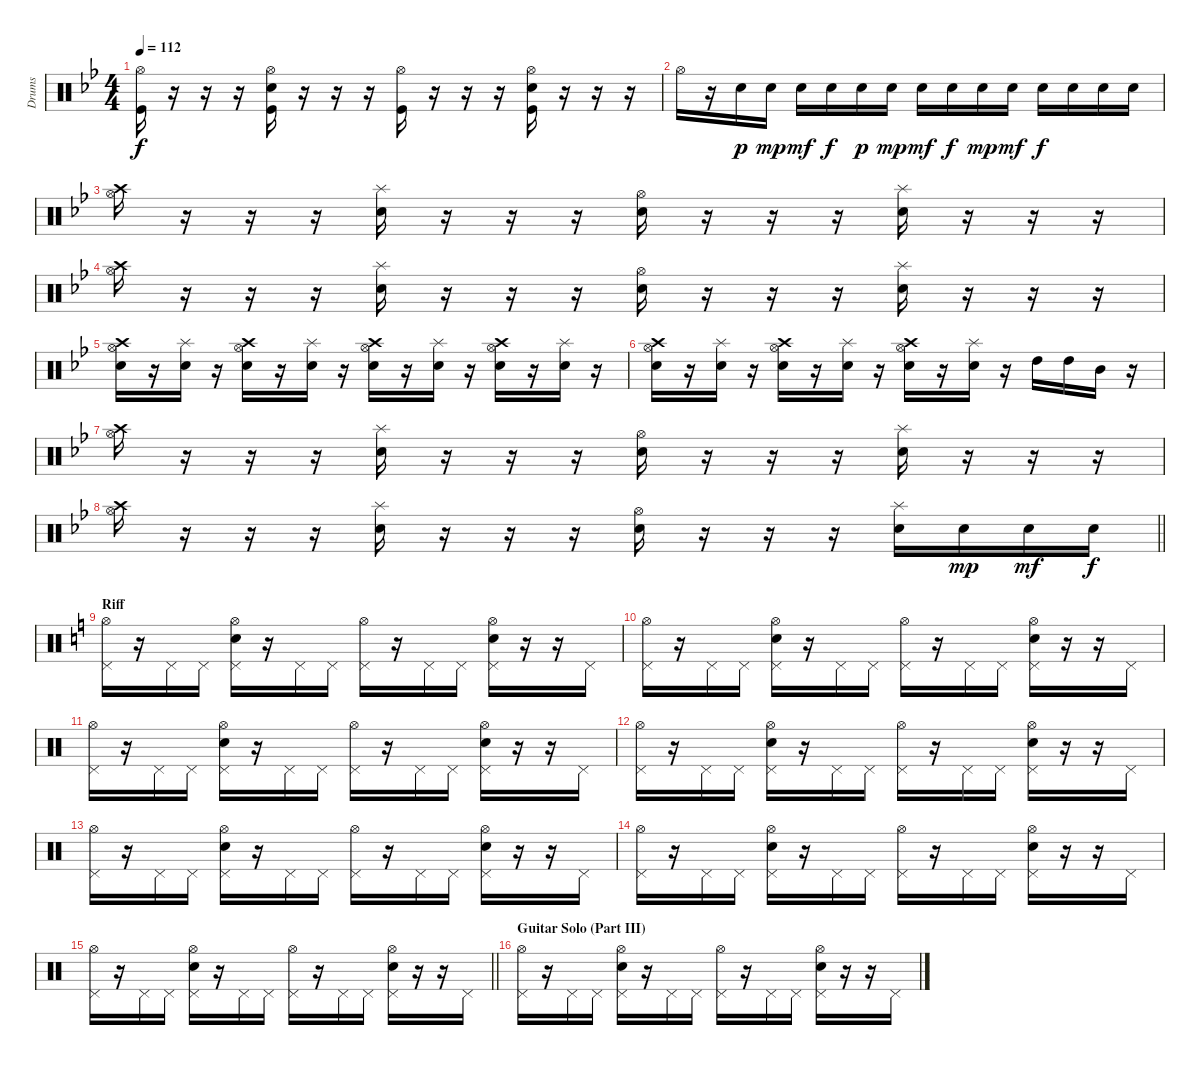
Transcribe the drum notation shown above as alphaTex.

\track ("Drums" "Drums") {instrument percussion}
\staff {score}
\articulation defaults
\ts (4 4)
\tempo 112
\clef neutral
\ks bb
("Hi-Hat (open)" "Kick (hit)").16{dy f} r.16 r.16 r.16 ("Hi-Hat (open)" "Electric Snare (hit)" "Kick (hit)").16 r.16 r.16 r.16 ("Hi-Hat (open)" "Kick (hit)").16 r.16 r.16 r.16 ("Hi-Hat (open)" "Electric Snare (hit)" "Kick (hit)").16 r.16 r.16 r.16 |
"Hi-Hat (open)".16 r.16 "Electric Snare (hit)".16{dy p} "Electric Snare (hit)".16{dy mp} "Electric Snare (hit)".16{dy mf} "Electric Snare (hit)".16{dy f} "Electric Snare (hit)".16{dy p} "Electric Snare (hit)".16{dy mp} "Electric Snare (hit)".16{dy mf} "Electric Snare (hit)".16{dy f} "Electric Snare (hit)".16{dy mp} "Electric Snare (hit)".16{dy mf} "Electric Snare (hit)".16{dy f} "Electric Snare (hit)".16 "Electric Snare (hit)".16 "Electric Snare (hit)".16 |
("Hi-Hat (open)" "Crash high (hit)").16 r.16 r.16 r.16 ("Electric Snare (hit)" "Splash (hit)").16 r.16 r.16 r.16 ("Hi-Hat (open)" "Electric Snare (hit)").16 r.16 r.16 r.16 ("Electric Snare (hit)" "Splash (hit)").16 r.16 r.16 r.16 |
("Hi-Hat (open)" "Crash high (hit)").16 r.16 r.16 r.16 ("Electric Snare (hit)" "Splash (hit)").16 r.16 r.16 r.16 ("Hi-Hat (open)" "Electric Snare (hit)").16 r.16 r.16 r.16 ("Electric Snare (hit)" "Splash (hit)").16 r.16 r.16 r.16 |
("Hi-Hat (open)" "Electric Snare (hit)" "Crash high (hit)").16 r.16 ("Electric Snare (hit)" "Splash (hit)").16 r.16 ("Hi-Hat (open)" "Electric Snare (hit)" "Crash high (hit)").16 r.16 ("Electric Snare (hit)" "Splash (hit)").16 r.16 ("Hi-Hat (open)" "Electric Snare (hit)" "Crash high (hit)").16 r.16 ("Electric Snare (hit)" "Splash (hit)").16 r.16 ("Hi-Hat (open)" "Electric Snare (hit)" "Crash high (hit)").16 r.16 ("Electric Snare (hit)" "Splash (hit)").16 r.16 |
("Hi-Hat (open)" "Electric Snare (hit)" "Crash high (hit)").16 r.16 ("Electric Snare (hit)" "Splash (hit)").16 r.16 ("Hi-Hat (open)" "Electric Snare (hit)" "Crash high (hit)").16 r.16 ("Electric Snare (hit)" "Splash (hit)").16 r.16 ("Hi-Hat (open)" "Electric Snare (hit)" "Crash high (hit)").16 r.16 ("Electric Snare (hit)" "Splash (hit)").16 r.16 "High Tom (hit)".16 "High Tom (hit)".16 "Mid Tom (hit)".16 r.16 |
("Hi-Hat (open)" "Crash high (hit)").16 r.16 r.16 r.16 ("Electric Snare (hit)" "Splash (hit)").16 r.16 r.16 r.16 ("Hi-Hat (open)" "Electric Snare (hit)").16 r.16 r.16 r.16 ("Electric Snare (hit)" "Splash (hit)").16 r.16 r.16 r.16 |
\barLineRight lightlight
("Hi-Hat (open)" "Crash high (hit)").16 r.16 r.16 r.16 ("Electric Snare (hit)" "Splash (hit)").16 r.16 r.16 r.16 ("Hi-Hat (open)" "Electric Snare (hit)").16 r.16 r.16 r.16 ("Electric Snare (hit)" "Splash (hit)").16 "Electric Snare (hit)".16{dy mp} "Electric Snare (hit)".16{dy mf} "Electric Snare (hit)".16{dy f} |
\section ("" "Riff")
\ks c
("Pedal Hi-Hat (hit)" "Hi-Hat (open)").16 r.16 "Pedal Hi-Hat (hit)".16 "Pedal Hi-Hat (hit)".16 ("Pedal Hi-Hat (hit)" "Hi-Hat (open)" "Electric Snare (hit)").16 r.16 "Pedal Hi-Hat (hit)".16 "Pedal Hi-Hat (hit)".16 ("Pedal Hi-Hat (hit)" "Hi-Hat (open)").16 r.16 "Pedal Hi-Hat (hit)".16 "Pedal Hi-Hat (hit)".16 ("Pedal Hi-Hat (hit)" "Hi-Hat (open)" "Electric Snare (hit)").16 r.16 r.16 "Pedal Hi-Hat (hit)".16 |
("Pedal Hi-Hat (hit)" "Hi-Hat (open)").16 r.16 "Pedal Hi-Hat (hit)".16 "Pedal Hi-Hat (hit)".16 ("Pedal Hi-Hat (hit)" "Hi-Hat (open)" "Electric Snare (hit)").16 r.16 "Pedal Hi-Hat (hit)".16 "Pedal Hi-Hat (hit)".16 ("Pedal Hi-Hat (hit)" "Hi-Hat (open)").16 r.16 "Pedal Hi-Hat (hit)".16 "Pedal Hi-Hat (hit)".16 ("Pedal Hi-Hat (hit)" "Hi-Hat (open)" "Electric Snare (hit)").16 r.16 r.16 "Pedal Hi-Hat (hit)".16 |
("Pedal Hi-Hat (hit)" "Hi-Hat (open)").16 r.16 "Pedal Hi-Hat (hit)".16 "Pedal Hi-Hat (hit)".16 ("Pedal Hi-Hat (hit)" "Hi-Hat (open)" "Electric Snare (hit)").16 r.16 "Pedal Hi-Hat (hit)".16 "Pedal Hi-Hat (hit)".16 ("Pedal Hi-Hat (hit)" "Hi-Hat (open)").16 r.16 "Pedal Hi-Hat (hit)".16 "Pedal Hi-Hat (hit)".16 ("Pedal Hi-Hat (hit)" "Hi-Hat (open)" "Electric Snare (hit)").16 r.16 r.16 "Pedal Hi-Hat (hit)".16 |
("Pedal Hi-Hat (hit)" "Hi-Hat (open)").16 r.16 "Pedal Hi-Hat (hit)".16 "Pedal Hi-Hat (hit)".16 ("Pedal Hi-Hat (hit)" "Hi-Hat (open)" "Electric Snare (hit)").16 r.16 "Pedal Hi-Hat (hit)".16 "Pedal Hi-Hat (hit)".16 ("Pedal Hi-Hat (hit)" "Hi-Hat (open)").16 r.16 "Pedal Hi-Hat (hit)".16 "Pedal Hi-Hat (hit)".16 ("Pedal Hi-Hat (hit)" "Hi-Hat (open)" "Electric Snare (hit)").16 r.16 r.16 "Pedal Hi-Hat (hit)".16 |
("Pedal Hi-Hat (hit)" "Hi-Hat (open)").16 r.16 "Pedal Hi-Hat (hit)".16 "Pedal Hi-Hat (hit)".16 ("Pedal Hi-Hat (hit)" "Hi-Hat (open)" "Electric Snare (hit)").16 r.16 "Pedal Hi-Hat (hit)".16 "Pedal Hi-Hat (hit)".16 ("Pedal Hi-Hat (hit)" "Hi-Hat (open)").16 r.16 "Pedal Hi-Hat (hit)".16 "Pedal Hi-Hat (hit)".16 ("Pedal Hi-Hat (hit)" "Hi-Hat (open)" "Electric Snare (hit)").16 r.16 r.16 "Pedal Hi-Hat (hit)".16 |
("Pedal Hi-Hat (hit)" "Hi-Hat (open)").16 r.16 "Pedal Hi-Hat (hit)".16 "Pedal Hi-Hat (hit)".16 ("Pedal Hi-Hat (hit)" "Hi-Hat (open)" "Electric Snare (hit)").16 r.16 "Pedal Hi-Hat (hit)".16 "Pedal Hi-Hat (hit)".16 ("Pedal Hi-Hat (hit)" "Hi-Hat (open)").16 r.16 "Pedal Hi-Hat (hit)".16 "Pedal Hi-Hat (hit)".16 ("Pedal Hi-Hat (hit)" "Hi-Hat (open)" "Electric Snare (hit)").16 r.16 r.16 "Pedal Hi-Hat (hit)".16 |
\barLineRight lightlight
("Pedal Hi-Hat (hit)" "Hi-Hat (open)").16 r.16 "Pedal Hi-Hat (hit)".16 "Pedal Hi-Hat (hit)".16 ("Pedal Hi-Hat (hit)" "Hi-Hat (open)" "Electric Snare (hit)").16 r.16 "Pedal Hi-Hat (hit)".16 "Pedal Hi-Hat (hit)".16 ("Pedal Hi-Hat (hit)" "Hi-Hat (open)").16 r.16 "Pedal Hi-Hat (hit)".16 "Pedal Hi-Hat (hit)".16 ("Pedal Hi-Hat (hit)" "Hi-Hat (open)" "Electric Snare (hit)").16 r.16 r.16 "Pedal Hi-Hat (hit)".16 |
\section ("" "Guitar Solo (Part III)")
("Pedal Hi-Hat (hit)" "Hi-Hat (open)").16 r.16 "Pedal Hi-Hat (hit)".16 "Pedal Hi-Hat (hit)".16 ("Pedal Hi-Hat (hit)" "Hi-Hat (open)" "Electric Snare (hit)").16 r.16 "Pedal Hi-Hat (hit)".16 "Pedal Hi-Hat (hit)".16 ("Pedal Hi-Hat (hit)" "Hi-Hat (open)").16 r.16 "Pedal Hi-Hat (hit)".16 "Pedal Hi-Hat (hit)".16 ("Pedal Hi-Hat (hit)" "Hi-Hat (open)" "Electric Snare (hit)").16 r.16 r.16 "Pedal Hi-Hat (hit)".16
